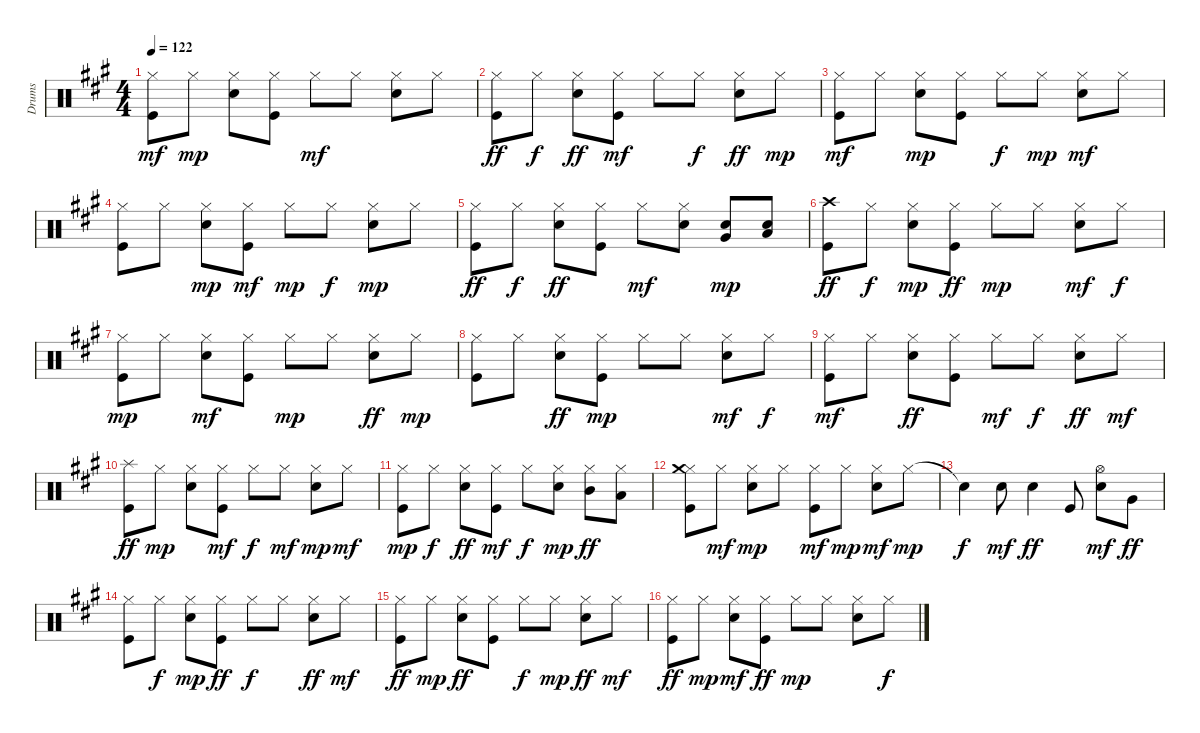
\track ("Drums" "Drums") {instrument percussion}
\staff {score}
\articulation defaults
\ts (4 4)
\tempo 122
\clef neutral
\ks a
("Kick (hit)" "Hi-Hat (closed)").8{dy mf} "Hi-Hat (closed)".8{dy mp} ("Electric Snare (hit)" "Hi-Hat (closed)").8 ("Kick (hit)" "Hi-Hat (closed)").8 "Hi-Hat (closed)".8{dy mf} "Hi-Hat (closed)".8 ("Electric Snare (hit)" "Hi-Hat (closed)").8 "Hi-Hat (closed)".8 |
("Kick (hit)" "Hi-Hat (closed)").8{dy ff} "Hi-Hat (closed)".8{dy f} ("Electric Snare (hit)" "Hi-Hat (closed)").8{dy ff} ("Kick (hit)" "Hi-Hat (closed)").8{dy mf} "Hi-Hat (closed)".8 "Hi-Hat (closed)".8{dy f} ("Electric Snare (hit)" "Hi-Hat (closed)").8{dy ff} "Hi-Hat (closed)".8{dy mp} |
("Kick (hit)" "Hi-Hat (closed)").8{dy mf} "Hi-Hat (closed)".8 ("Electric Snare (hit)" "Hi-Hat (closed)").8{dy mp} ("Kick (hit)" "Hi-Hat (closed)").8 "Hi-Hat (closed)".8{dy f} "Hi-Hat (closed)".8{dy mp} ("Electric Snare (hit)" "Hi-Hat (closed)").8{dy mf} "Hi-Hat (closed)".8 |
("Kick (hit)" "Hi-Hat (closed)").8 "Hi-Hat (closed)".8 ("Electric Snare (hit)" "Hi-Hat (closed)").8{dy mp} ("Kick (hit)" "Hi-Hat (closed)").8{dy mf} "Hi-Hat (closed)".8{dy mp} "Hi-Hat (closed)".8{dy f} ("Electric Snare (hit)" "Hi-Hat (closed)").8{dy mp} "Hi-Hat (closed)".8 |
("Kick (hit)" "Hi-Hat (closed)").8{dy ff} "Hi-Hat (closed)".8{dy f} ("Electric Snare (hit)" "Hi-Hat (closed)").8{dy ff} ("Kick (hit)" "Hi-Hat (closed)").8 "Hi-Hat (closed)".8{dy mf} ("Electric Snare (hit)" "Hi-Hat (closed)").8 ("Electric Snare (hit)" "Very Low Tom (hit)").8{dy mp} ("Electric Snare (hit)" "Low Tom (hit)").8 |
("Kick (hit)" "Crash high (hit)").8{dy ff} "Hi-Hat (closed)".8{dy f} ("Electric Snare (hit)" "Hi-Hat (closed)").8{dy mp} ("Kick (hit)" "Hi-Hat (closed)").8{dy ff} "Hi-Hat (closed)".8{dy mp} "Hi-Hat (closed)".8 ("Electric Snare (hit)" "Hi-Hat (closed)").8{dy mf} "Hi-Hat (closed)".8{dy f} |
("Kick (hit)" "Hi-Hat (closed)").8{dy mp} "Hi-Hat (closed)".8 ("Electric Snare (hit)" "Hi-Hat (closed)").8{dy mf} ("Kick (hit)" "Hi-Hat (closed)").8 "Hi-Hat (closed)".8{dy mp} "Hi-Hat (closed)".8 ("Electric Snare (hit)" "Hi-Hat (closed)").8{dy ff} "Hi-Hat (closed)".8{dy mp} |
("Kick (hit)" "Hi-Hat (closed)").8 "Hi-Hat (closed)".8 ("Electric Snare (hit)" "Hi-Hat (closed)").8{dy ff} ("Kick (hit)" "Hi-Hat (closed)").8{dy mp} "Hi-Hat (closed)".8 "Hi-Hat (closed)".8 ("Electric Snare (hit)" "Hi-Hat (closed)").8{dy mf} "Hi-Hat (closed)".8{dy f} |
("Kick (hit)" "Hi-Hat (closed)").8{dy mf} "Hi-Hat (closed)".8 ("Electric Snare (hit)" "Hi-Hat (closed)").8{dy ff} ("Kick (hit)" "Hi-Hat (closed)").8 "Hi-Hat (closed)".8{dy mf} "Hi-Hat (closed)".8{dy f} ("Electric Snare (hit)" "Hi-Hat (closed)").8{dy ff} "Hi-Hat (closed)".8{dy mf} |
("Kick (hit)" "Splash (hit)").8{dy ff} "Hi-Hat (closed)".8{dy mp} ("Electric Snare (hit)" "Hi-Hat (closed)").8 ("Kick (hit)" "Hi-Hat (closed)").8{dy mf} "Hi-Hat (closed)".8{dy f} "Hi-Hat (closed)".8{dy mf} ("Electric Snare (hit)" "Hi-Hat (closed)").8{dy mp} "Hi-Hat (closed)".8{dy mf} |
("Kick (hit)" "Hi-Hat (closed)").8{dy mp} "Hi-Hat (closed)".8{dy f} ("Electric Snare (hit)" "Hi-Hat (closed)").8{dy ff} ("Kick (hit)" "Hi-Hat (closed)").8{dy mf} "Hi-Hat (closed)".8{dy f} ("Electric Snare (hit)" "Hi-Hat (closed)").8{dy mp} ("Hi-Hat (closed)" "Mid Tom (hit)").8{dy ff} ("Hi-Hat (closed)" "Low Tom (hit)").8 |
("Kick (hit)" "Hi-Hat (closed)" "Crash medium (hit)").8 "Hi-Hat (closed)".8{dy mf} ("Electric Snare (hit)" "Hi-Hat (closed)").8{dy mp} "Hi-Hat (closed)".8 ("Kick (hit)" "Hi-Hat (closed)").8{dy mf} "Hi-Hat (closed)".8{dy mp} ("Electric Snare (hit)" "Hi-Hat (closed)").8{dy mf} "Hi-Hat (closed)".8{dy mp} |
"Snare (hit)"{t}.4{dy f} "Electric Snare (hit)".8{dy mf} "Electric Snare (hit)".4{dy ff} "Kick (hit)".8 ("Electric Snare (hit)" "Hi-Hat (open)").8{dy mf} "Very Low Tom (hit)".8{dy ff} |
("Kick (hit)" "Hi-Hat (closed)").8 "Hi-Hat (closed)".8{dy f} ("Electric Snare (hit)" "Hi-Hat (closed)").8{dy mp} ("Kick (hit)" "Hi-Hat (closed)").8{dy ff} "Hi-Hat (closed)".8{dy f} "Hi-Hat (closed)".8 ("Electric Snare (hit)" "Hi-Hat (closed)").8{dy ff} "Hi-Hat (closed)".8{dy mf} |
("Kick (hit)" "Hi-Hat (closed)").8{dy ff} "Hi-Hat (closed)".8{dy mp} ("Electric Snare (hit)" "Hi-Hat (closed)").8{dy ff} ("Kick (hit)" "Hi-Hat (closed)").8 "Hi-Hat (closed)".8{dy f} "Hi-Hat (closed)".8{dy mp} ("Electric Snare (hit)" "Hi-Hat (closed)").8{dy ff} "Hi-Hat (closed)".8{dy mf} |
("Kick (hit)" "Hi-Hat (closed)").8{dy ff} "Hi-Hat (closed)".8{dy mp} ("Electric Snare (hit)" "Hi-Hat (closed)").8{dy mf} ("Kick (hit)" "Hi-Hat (closed)").8{dy ff} "Hi-Hat (closed)".8{dy mp} "Hi-Hat (closed)".8 ("Electric Snare (hit)" "Hi-Hat (closed)").8 "Hi-Hat (closed)".8{dy f}
